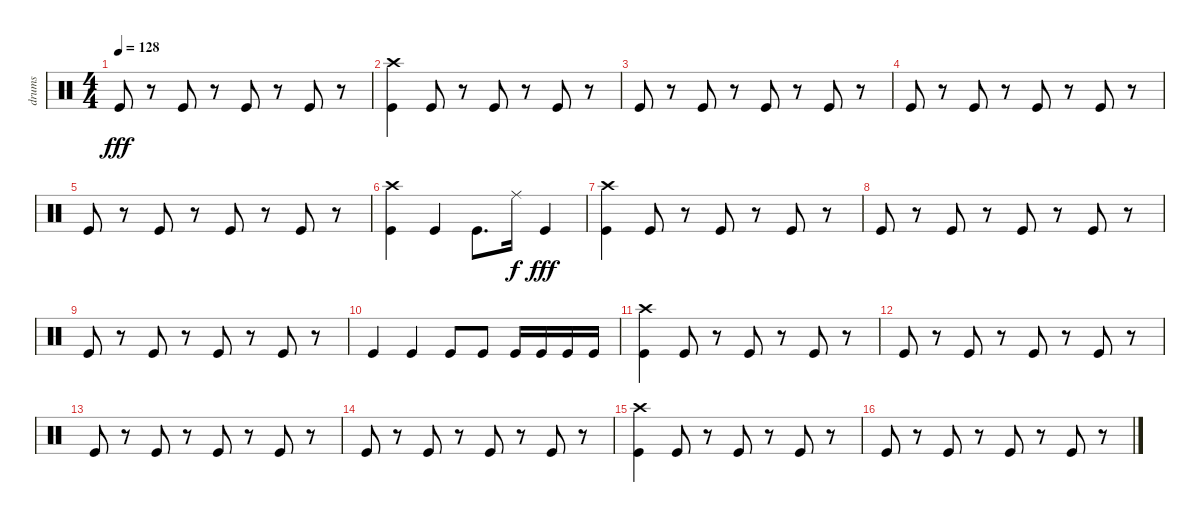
\track ("drums" "drums") {instrument percussion}
\staff {score}
\articulation defaults
\ts (4 4)
\tempo 128
\clef neutral
\ks c "Kick (hit)".8{dy fff}
r.8 "Kick (hit)".8 r.8 "Kick (hit)".8 r.8 "Kick (hit)".8 r.8 |
("Kick (hit)" "Crash high (hit)").4 "Kick (hit)".8 r.8 "Kick (hit)".8 r.8 "Kick (hit)".8 r.8 |
"Kick (hit)".8 r.8 "Kick (hit)".8 r.8 "Kick (hit)".8 r.8 "Kick (hit)".8 r.8 |
"Kick (hit)".8 r.8 "Kick (hit)".8 r.8 "Kick (hit)".8 r.8 "Kick (hit)".8 r.8 |
"Kick (hit)".8 r.8 "Kick (hit)".8 r.8 "Kick (hit)".8 r.8 "Kick (hit)".8 r.8 |
("Kick (hit)" "Crash high (hit)").4 "Kick (hit)".4 "Kick (hit)".8{d} "Ride (middle)".16{dy f} "Kick (hit)".4{dy fff} |
("Kick (hit)" "Crash high (hit)").4 "Kick (hit)".8 r.8 "Kick (hit)".8 r.8 "Kick (hit)".8 r.8 |
"Kick (hit)".8 r.8 "Kick (hit)".8 r.8 "Kick (hit)".8 r.8 "Kick (hit)".8 r.8 |
"Kick (hit)".8 r.8 "Kick (hit)".8 r.8 "Kick (hit)".8 r.8 "Kick (hit)".8 r.8 |
"Kick (hit)".4 "Kick (hit)".4 "Kick (hit)".8 "Kick (hit)".8 "Kick (hit)".16 "Kick (hit)".16 "Kick (hit)".16 "Kick (hit)".16 |
("Kick (hit)" "Crash high (hit)").4 "Kick (hit)".8 r.8 "Kick (hit)".8 r.8 "Kick (hit)".8 r.8 |
"Kick (hit)".8 r.8 "Kick (hit)".8 r.8 "Kick (hit)".8 r.8 "Kick (hit)".8 r.8 |
"Kick (hit)".8 r.8 "Kick (hit)".8 r.8 "Kick (hit)".8 r.8 "Kick (hit)".8 r.8 |
"Kick (hit)".8 r.8 "Kick (hit)".8 r.8 "Kick (hit)".8 r.8 "Kick (hit)".8 r.8 |
("Kick (hit)" "Crash high (hit)").4 "Kick (hit)".8 r.8 "Kick (hit)".8 r.8 "Kick (hit)".8 r.8 |
"Kick (hit)".8 r.8 "Kick (hit)".8 r.8 "Kick (hit)".8 r.8 "Kick (hit)".8 r.8
